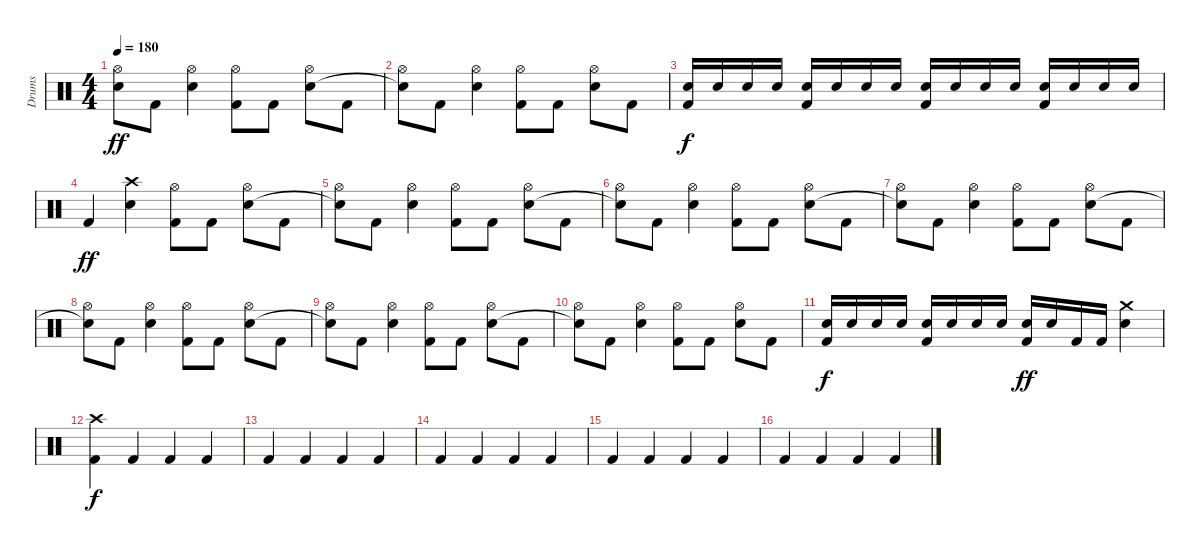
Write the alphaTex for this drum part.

\track ("Drums" "Drums") {instrument percussion}
\staff {score}
\articulation defaults
\ts (4 4)
\tempo 180
\clef neutral
\ks c
("Hi-Hat (open)" "Snare (hit)"{t}).8{dy ff} "Kick (hit) 2".8 ("Hi-Hat (open)" "Electric Snare (hit)").4 ("Hi-Hat (open)" "Kick (hit) 2").8 "Kick (hit) 2".8 ("Hi-Hat (open)" "Electric Snare (hit)").8 "Kick (hit) 2".8 |
("Hi-Hat (open)" "Snare (hit)"{t}).8 "Kick (hit) 2".8 ("Hi-Hat (open)" "Electric Snare (hit)").4 ("Hi-Hat (open)" "Kick (hit) 2").8 "Kick (hit) 2".8 ("Hi-Hat (open)" "Electric Snare (hit)").8 "Kick (hit) 2".8 |
("Electric Snare (hit)" "Kick (hit) 2").16{dy f} "Electric Snare (hit)".16 "Electric Snare (hit)".16 "Electric Snare (hit)".16 ("Electric Snare (hit)" "Kick (hit) 2").16 "Electric Snare (hit)".16 "Electric Snare (hit)".16 "Electric Snare (hit)".16 ("Electric Snare (hit)" "Kick (hit) 2").16 "Electric Snare (hit)".16 "Electric Snare (hit)".16 "Electric Snare (hit)".16 ("Electric Snare (hit)" "Kick (hit) 2").16 "Electric Snare (hit)".16 "Electric Snare (hit)".16 "Electric Snare (hit)".16 |
"Kick (hit) 2".4{dy ff} ("Crash high (hit)" "Electric Snare (hit)").4 ("Hi-Hat (open)" "Kick (hit) 2").8 "Kick (hit) 2".8 ("Hi-Hat (open)" "Electric Snare (hit)").8 "Kick (hit) 2".8 |
("Hi-Hat (open)" "Snare (hit)"{t}).8 "Kick (hit) 2".8 ("Hi-Hat (open)" "Electric Snare (hit)").4 ("Hi-Hat (open)" "Kick (hit) 2").8 "Kick (hit) 2".8 ("Hi-Hat (open)" "Electric Snare (hit)").8 "Kick (hit) 2".8 |
("Hi-Hat (open)" "Snare (hit)"{t}).8 "Kick (hit) 2".8 ("Hi-Hat (open)" "Electric Snare (hit)").4 ("Hi-Hat (open)" "Kick (hit) 2").8 "Kick (hit) 2".8 ("Hi-Hat (open)" "Electric Snare (hit)").8 "Kick (hit) 2".8 |
("Hi-Hat (open)" "Snare (hit)"{t}).8 "Kick (hit) 2".8 ("Hi-Hat (open)" "Electric Snare (hit)").4 ("Hi-Hat (open)" "Kick (hit) 2").8 "Kick (hit) 2".8 ("Hi-Hat (open)" "Electric Snare (hit)").8 "Kick (hit) 2".8 |
("Hi-Hat (open)" "Snare (hit)"{t}).8 "Kick (hit) 2".8 ("Hi-Hat (open)" "Electric Snare (hit)").4 ("Hi-Hat (open)" "Kick (hit) 2").8 "Kick (hit) 2".8 ("Hi-Hat (open)" "Electric Snare (hit)").8 "Kick (hit) 2".8 |
("Hi-Hat (open)" "Snare (hit)"{t}).8 "Kick (hit) 2".8 ("Hi-Hat (open)" "Electric Snare (hit)").4 ("Hi-Hat (open)" "Kick (hit) 2").8 "Kick (hit) 2".8 ("Hi-Hat (open)" "Electric Snare (hit)").8 "Kick (hit) 2".8 |
("Hi-Hat (open)" "Snare (hit)"{t}).8 "Kick (hit) 2".8 ("Hi-Hat (open)" "Electric Snare (hit)").4 ("Hi-Hat (open)" "Kick (hit) 2").8 "Kick (hit) 2".8 ("Hi-Hat (open)" "Electric Snare (hit)").8 "Kick (hit) 2".8 |
("Electric Snare (hit)" "Kick (hit) 2").16{dy f} "Electric Snare (hit)".16 "Electric Snare (hit)".16 "Electric Snare (hit)".16 ("Electric Snare (hit)" "Kick (hit) 2").16 "Electric Snare (hit)".16 "Electric Snare (hit)".16 "Electric Snare (hit)".16 ("Electric Snare (hit)" "Kick (hit) 2").16{dy ff} "Electric Snare (hit)".16 "Kick (hit) 2".16 "Kick (hit) 2".16 ("Crash medium (hit)" "Electric Snare (hit)").4 |
("Crash high (hit)" "Kick (hit) 2").4{dy f} "Kick (hit) 2".4 "Kick (hit) 2".4 "Kick (hit) 2".4 |
"Kick (hit) 2".4 "Kick (hit) 2".4 "Kick (hit) 2".4 "Kick (hit) 2".4 |
"Kick (hit) 2".4 "Kick (hit) 2".4 "Kick (hit) 2".4 "Kick (hit) 2".4 |
"Kick (hit) 2".4 "Kick (hit) 2".4 "Kick (hit) 2".4 "Kick (hit) 2".4 |
"Kick (hit) 2".4 "Kick (hit) 2".4 "Kick (hit) 2".4 "Kick (hit) 2".4
